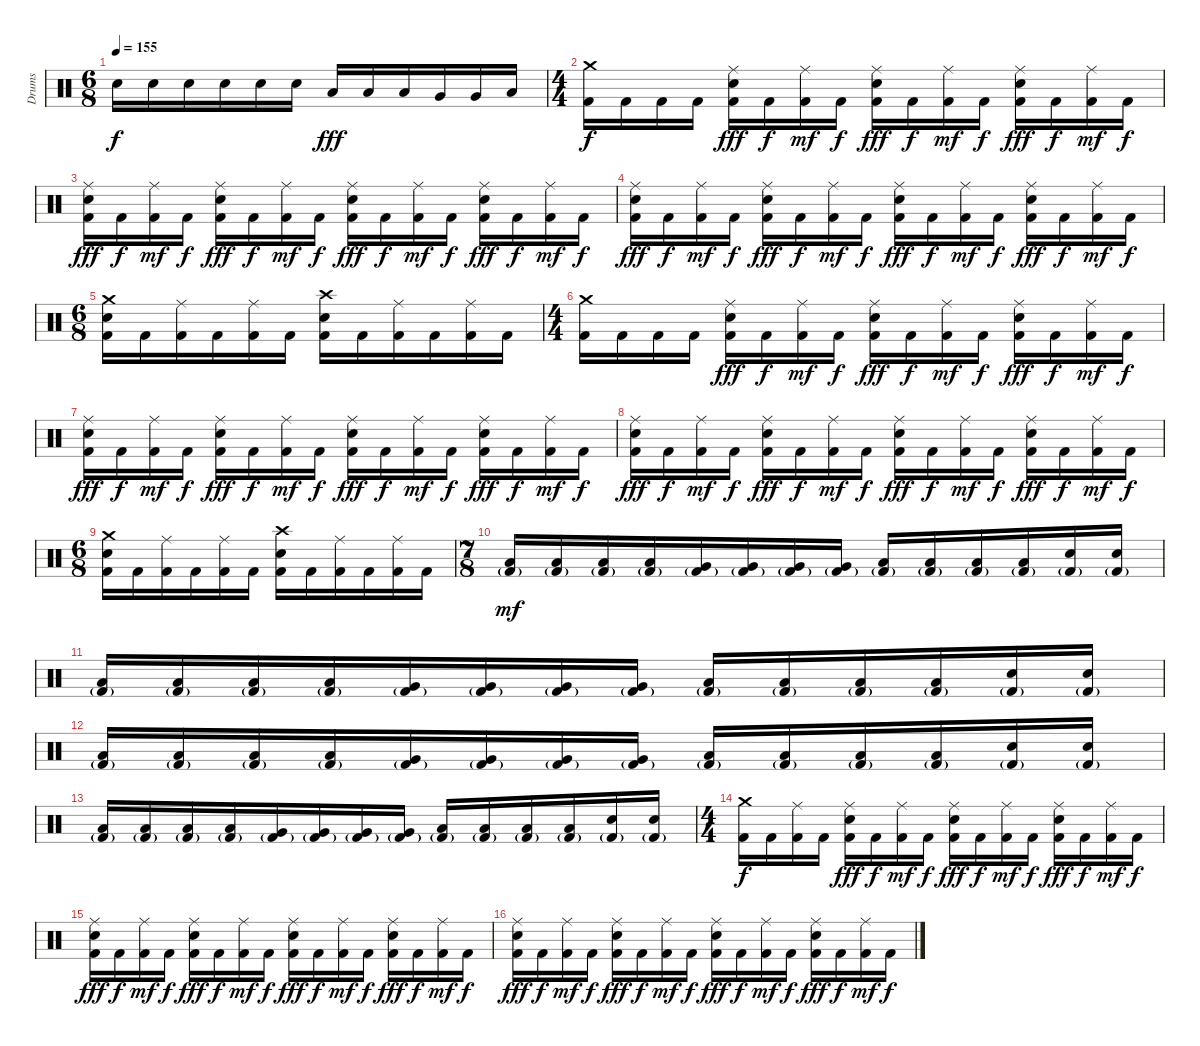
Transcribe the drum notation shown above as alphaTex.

\track ("Drums" "Drums") {instrument percussion}
\staff {score}
\articulation defaults
\ts (6 8)
\tempo 155
\clef neutral
\ks c "Electric Snare (hit)".16{dy f} "Electric Snare (hit)".16 "Electric Snare (hit)".16 "Electric Snare (hit)".16 "Electric Snare (hit)".16 "Electric Snare (hit)".16 "Low Tom (hit)".16{dy fff} "Low Tom (hit)".16 "Low Tom (hit)".16 "Very Low Tom (hit)".16 "Very Low Tom (hit)".16 "Low Floor Tom (hit)".16
|
\ts (4 4)
("Crash medium (hit)" "Kick (hit) 2").16{dy f} "Kick (hit) 2".16 "Kick (hit) 2".16 "Kick (hit) 2".16 ("Ride (middle)" "Electric Snare (hit)" "Kick (hit) 2").16{dy fff} "Kick (hit) 2".16{dy f} ("Ride (middle)" "Kick (hit) 2").16{dy mf} "Kick (hit) 2".16{dy f} ("Ride (middle)" "Electric Snare (hit)" "Kick (hit) 2").16{dy fff} "Kick (hit) 2".16{dy f} ("Ride (middle)" "Kick (hit) 2").16{dy mf} "Kick (hit) 2".16{dy f} ("Ride (middle)" "Electric Snare (hit)" "Kick (hit) 2").16{dy fff} "Kick (hit) 2".16{dy f} ("Ride (middle)" "Kick (hit) 2").16{dy mf} "Kick (hit) 2".16{dy f} |
("Ride (middle)" "Electric Snare (hit)" "Kick (hit) 2").16{dy fff} "Kick (hit) 2".16{dy f} ("Ride (middle)" "Kick (hit) 2").16{dy mf} "Kick (hit) 2".16{dy f} ("Ride (middle)" "Electric Snare (hit)" "Kick (hit) 2").16{dy fff} "Kick (hit) 2".16{dy f} ("Ride (middle)" "Kick (hit) 2").16{dy mf} "Kick (hit) 2".16{dy f} ("Ride (middle)" "Electric Snare (hit)" "Kick (hit) 2").16{dy fff} "Kick (hit) 2".16{dy f} ("Ride (middle)" "Kick (hit) 2").16{dy mf} "Kick (hit) 2".16{dy f} ("Ride (middle)" "Electric Snare (hit)" "Kick (hit) 2").16{dy fff} "Kick (hit) 2".16{dy f} ("Ride (middle)" "Kick (hit) 2").16{dy mf} "Kick (hit) 2".16{dy f} |
("Ride (middle)" "Electric Snare (hit)" "Kick (hit) 2").16{dy fff} "Kick (hit) 2".16{dy f} ("Ride (middle)" "Kick (hit) 2").16{dy mf} "Kick (hit) 2".16{dy f} ("Ride (middle)" "Electric Snare (hit)" "Kick (hit) 2").16{dy fff} "Kick (hit) 2".16{dy f} ("Ride (middle)" "Kick (hit) 2").16{dy mf} "Kick (hit) 2".16{dy f} ("Ride (middle)" "Electric Snare (hit)" "Kick (hit) 2").16{dy fff} "Kick (hit) 2".16{dy f} ("Ride (middle)" "Kick (hit) 2").16{dy mf} "Kick (hit) 2".16{dy f} ("Ride (middle)" "Electric Snare (hit)" "Kick (hit) 2").16{dy fff} "Kick (hit) 2".16{dy f} ("Ride (middle)" "Kick (hit) 2").16{dy mf} "Kick (hit) 2".16{dy f} |
\ts (6 8)
("Crash medium (hit)" "Electric Snare (hit)" "Kick (hit) 2").16 "Kick (hit) 2".16 ("Ride (middle)" "Kick (hit) 2").16 "Kick (hit) 2".16 ("Ride (middle)" "Kick (hit) 2").16 "Kick (hit) 2".16 ("Crash high (hit)" "Electric Snare (hit)" "Kick (hit) 2").16 "Kick (hit) 2".16 ("Ride (middle)" "Kick (hit) 2").16 "Kick (hit) 2".16 ("Ride (middle)" "Kick (hit) 2").16 "Kick (hit) 2".16 |
\ts (4 4)
("Crash medium (hit)" "Kick (hit) 2").16 "Kick (hit) 2".16 "Kick (hit) 2".16 "Kick (hit) 2".16 ("Ride (middle)" "Electric Snare (hit)" "Kick (hit) 2").16{dy fff} "Kick (hit) 2".16{dy f} ("Ride (middle)" "Kick (hit) 2").16{dy mf} "Kick (hit) 2".16{dy f} ("Ride (middle)" "Electric Snare (hit)" "Kick (hit) 2").16{dy fff} "Kick (hit) 2".16{dy f} ("Ride (middle)" "Kick (hit) 2").16{dy mf} "Kick (hit) 2".16{dy f} ("Ride (middle)" "Electric Snare (hit)" "Kick (hit) 2").16{dy fff} "Kick (hit) 2".16{dy f} ("Ride (middle)" "Kick (hit) 2").16{dy mf} "Kick (hit) 2".16{dy f} |
("Ride (middle)" "Electric Snare (hit)" "Kick (hit) 2").16{dy fff} "Kick (hit) 2".16{dy f} ("Ride (middle)" "Kick (hit) 2").16{dy mf} "Kick (hit) 2".16{dy f} ("Ride (middle)" "Electric Snare (hit)" "Kick (hit) 2").16{dy fff} "Kick (hit) 2".16{dy f} ("Ride (middle)" "Kick (hit) 2").16{dy mf} "Kick (hit) 2".16{dy f} ("Ride (middle)" "Electric Snare (hit)" "Kick (hit) 2").16{dy fff} "Kick (hit) 2".16{dy f} ("Ride (middle)" "Kick (hit) 2").16{dy mf} "Kick (hit) 2".16{dy f} ("Ride (middle)" "Electric Snare (hit)" "Kick (hit) 2").16{dy fff} "Kick (hit) 2".16{dy f} ("Ride (middle)" "Kick (hit) 2").16{dy mf} "Kick (hit) 2".16{dy f} |
("Ride (middle)" "Electric Snare (hit)" "Kick (hit) 2").16{dy fff} "Kick (hit) 2".16{dy f} ("Ride (middle)" "Kick (hit) 2").16{dy mf} "Kick (hit) 2".16{dy f} ("Ride (middle)" "Electric Snare (hit)" "Kick (hit) 2").16{dy fff} "Kick (hit) 2".16{dy f} ("Ride (middle)" "Kick (hit) 2").16{dy mf} "Kick (hit) 2".16{dy f} ("Ride (middle)" "Electric Snare (hit)" "Kick (hit) 2").16{dy fff} "Kick (hit) 2".16{dy f} ("Ride (middle)" "Kick (hit) 2").16{dy mf} "Kick (hit) 2".16{dy f} ("Ride (middle)" "Electric Snare (hit)" "Kick (hit) 2").16{dy fff} "Kick (hit) 2".16{dy f} ("Ride (middle)" "Kick (hit) 2").16{dy mf} "Kick (hit) 2".16{dy f} |
\ts (6 8)
("Crash medium (hit)" "Electric Snare (hit)" "Kick (hit) 2").16 "Kick (hit) 2".16 ("Ride (middle)" "Kick (hit) 2").16 "Kick (hit) 2".16 ("Ride (middle)" "Kick (hit) 2").16 "Kick (hit) 2".16 ("Crash high (hit)" "Electric Snare (hit)" "Kick (hit) 2").16 "Kick (hit) 2".16 ("Ride (middle)" "Kick (hit) 2").16 "Kick (hit) 2".16 ("Ride (middle)" "Kick (hit) 2").16 "Kick (hit) 2".16 |
\ts (7 8)
("Low Tom (hit)" "Kick (hit) 2"{g}).16{dy mf} ("Low Tom (hit)" "Kick (hit) 2"{g}).16 ("Low Tom (hit)" "Kick (hit) 2"{g}).16 ("Low Tom (hit)" "Kick (hit) 2"{g}).16 ("Very Low Tom (hit)" "Kick (hit) 2"{g}).16 ("Very Low Tom (hit)" "Kick (hit) 2"{g}).16 ("Very Low Tom (hit)" "Kick (hit) 2"{g}).16 ("Very Low Tom (hit)" "Kick (hit) 2"{g}).16 ("Low Floor Tom (hit)" "Kick (hit) 2"{g}).16 ("Low Floor Tom (hit)" "Kick (hit) 2"{g}).16 ("Low Floor Tom (hit)" "Kick (hit) 2"{g}).16 ("Low Floor Tom (hit)" "Kick (hit) 2"{g}).16 ("Electric Snare (hit)" "Kick (hit) 2"{g}).16 ("Electric Snare (hit)" "Kick (hit) 2"{g}).16 |
("Low Tom (hit)" "Kick (hit) 2"{g}).16 ("Low Tom (hit)" "Kick (hit) 2"{g}).16 ("Low Tom (hit)" "Kick (hit) 2"{g}).16 ("Low Tom (hit)" "Kick (hit) 2"{g}).16 ("Very Low Tom (hit)" "Kick (hit) 2"{g}).16 ("Very Low Tom (hit)" "Kick (hit) 2"{g}).16 ("Very Low Tom (hit)" "Kick (hit) 2"{g}).16 ("Very Low Tom (hit)" "Kick (hit) 2"{g}).16 ("Low Floor Tom (hit)" "Kick (hit) 2"{g}).16 ("Low Floor Tom (hit)" "Kick (hit) 2"{g}).16 ("Low Floor Tom (hit)" "Kick (hit) 2"{g}).16 ("Low Floor Tom (hit)" "Kick (hit) 2"{g}).16 ("Electric Snare (hit)" "Kick (hit) 2"{g}).16 ("Electric Snare (hit)" "Kick (hit) 2"{g}).16 |
("Low Tom (hit)" "Kick (hit) 2"{g}).16 ("Low Tom (hit)" "Kick (hit) 2"{g}).16 ("Low Tom (hit)" "Kick (hit) 2"{g}).16 ("Low Tom (hit)" "Kick (hit) 2"{g}).16 ("Very Low Tom (hit)" "Kick (hit) 2"{g}).16 ("Very Low Tom (hit)" "Kick (hit) 2"{g}).16 ("Very Low Tom (hit)" "Kick (hit) 2"{g}).16 ("Very Low Tom (hit)" "Kick (hit) 2"{g}).16 ("Low Floor Tom (hit)" "Kick (hit) 2"{g}).16 ("Low Floor Tom (hit)" "Kick (hit) 2"{g}).16 ("Low Floor Tom (hit)" "Kick (hit) 2"{g}).16 ("Low Floor Tom (hit)" "Kick (hit) 2"{g}).16 ("Electric Snare (hit)" "Kick (hit) 2"{g}).16 ("Electric Snare (hit)" "Kick (hit) 2"{g}).16 |
("Low Tom (hit)" "Kick (hit) 2"{g}).16 ("Low Tom (hit)" "Kick (hit) 2"{g}).16 ("Low Tom (hit)" "Kick (hit) 2"{g}).16 ("Low Tom (hit)" "Kick (hit) 2"{g}).16 ("Very Low Tom (hit)" "Kick (hit) 2"{g}).16 ("Very Low Tom (hit)" "Kick (hit) 2"{g}).16 ("Very Low Tom (hit)" "Kick (hit) 2"{g}).16 ("Very Low Tom (hit)" "Kick (hit) 2"{g}).16 ("Low Floor Tom (hit)" "Kick (hit) 2"{g}).16 ("Low Floor Tom (hit)" "Kick (hit) 2"{g}).16 ("Low Floor Tom (hit)" "Kick (hit) 2"{g}).16 ("Low Floor Tom (hit)" "Kick (hit) 2"{g}).16 ("Electric Snare (hit)" "Kick (hit) 2"{g}).16 ("Electric Snare (hit)" "Kick (hit) 2"{g}).16 |
\ts (4 4)
("Crash medium (hit)" "Kick (hit) 2").16{dy f} "Kick (hit) 2".16 ("Ride (middle)" "Kick (hit) 2").16 "Kick (hit) 2".16 ("Ride (middle)" "Electric Snare (hit)" "Kick (hit) 2").16{dy fff} "Kick (hit) 2".16{dy f} ("Ride (middle)" "Kick (hit) 2").16{dy mf} "Kick (hit) 2".16{dy f} ("Ride (middle)" "Electric Snare (hit)" "Kick (hit) 2").16{dy fff} "Kick (hit) 2".16{dy f} ("Ride (middle)" "Kick (hit) 2").16{dy mf} "Kick (hit) 2".16{dy f} ("Ride (middle)" "Electric Snare (hit)" "Kick (hit) 2").16{dy fff} "Kick (hit) 2".16{dy f} ("Ride (middle)" "Kick (hit) 2").16{dy mf} "Kick (hit) 2".16{dy f} |
("Ride (middle)" "Electric Snare (hit)" "Kick (hit) 2").16{dy fff} "Kick (hit) 2".16{dy f} ("Ride (middle)" "Kick (hit) 2").16{dy mf} "Kick (hit) 2".16{dy f} ("Ride (middle)" "Electric Snare (hit)" "Kick (hit) 2").16{dy fff} "Kick (hit) 2".16{dy f} ("Ride (middle)" "Kick (hit) 2").16{dy mf} "Kick (hit) 2".16{dy f} ("Ride (middle)" "Electric Snare (hit)" "Kick (hit) 2").16{dy fff} "Kick (hit) 2".16{dy f} ("Ride (middle)" "Kick (hit) 2").16{dy mf} "Kick (hit) 2".16{dy f} ("Ride (middle)" "Electric Snare (hit)" "Kick (hit) 2").16{dy fff} "Kick (hit) 2".16{dy f} ("Ride (middle)" "Kick (hit) 2").16{dy mf} "Kick (hit) 2".16{dy f} |
("Ride (middle)" "Electric Snare (hit)" "Kick (hit) 2").16{dy fff} "Kick (hit) 2".16{dy f} ("Ride (middle)" "Kick (hit) 2").16{dy mf} "Kick (hit) 2".16{dy f} ("Ride (middle)" "Electric Snare (hit)" "Kick (hit) 2").16{dy fff} "Kick (hit) 2".16{dy f} ("Ride (middle)" "Kick (hit) 2").16{dy mf} "Kick (hit) 2".16{dy f} ("Ride (middle)" "Electric Snare (hit)" "Kick (hit) 2").16{dy fff} "Kick (hit) 2".16{dy f} ("Ride (middle)" "Kick (hit) 2").16{dy mf} "Kick (hit) 2".16{dy f} ("Ride (middle)" "Electric Snare (hit)" "Kick (hit) 2").16{dy fff} "Kick (hit) 2".16{dy f} ("Ride (middle)" "Kick (hit) 2").16{dy mf} "Kick (hit) 2".16{dy f}
